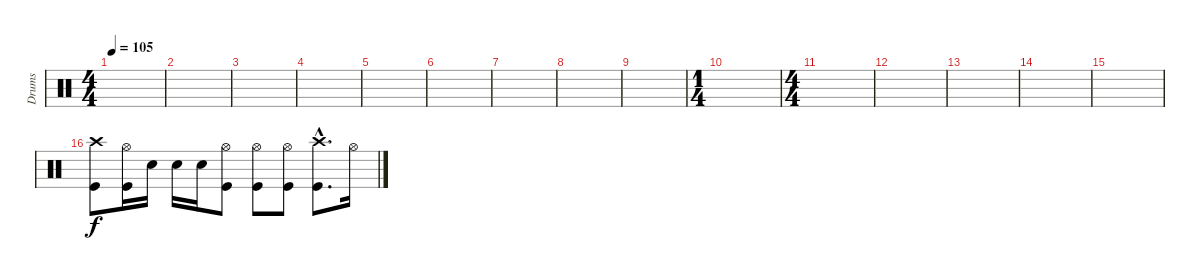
\track ("Drums" "Drums") {instrument percussion}
\staff {score}
\articulation defaults
\ts (4 4)
\tempo 105
\clef neutral
\ks c
|
|
|
|
|
|
|
|
|
\ts (1 4)
|
\ts (4 4)
|
|
|
|
|
("Crash high (hit)" "Kick (hit)").8 ("Hi-Hat (open)" "Kick (hit)").16 "Snare (hit) 2".16 "Snare (hit) 2".16 "Snare (hit) 2".16 ("Hi-Hat (open)" "Kick (hit)").8 ("Hi-Hat (open)" "Kick (hit)").8 ("Hi-Hat (open)" "Kick (hit)").8 ("Crash high (hit)"{hac} "Kick (hit)"{hac}).8{d} "Hi-Hat (open)".16
